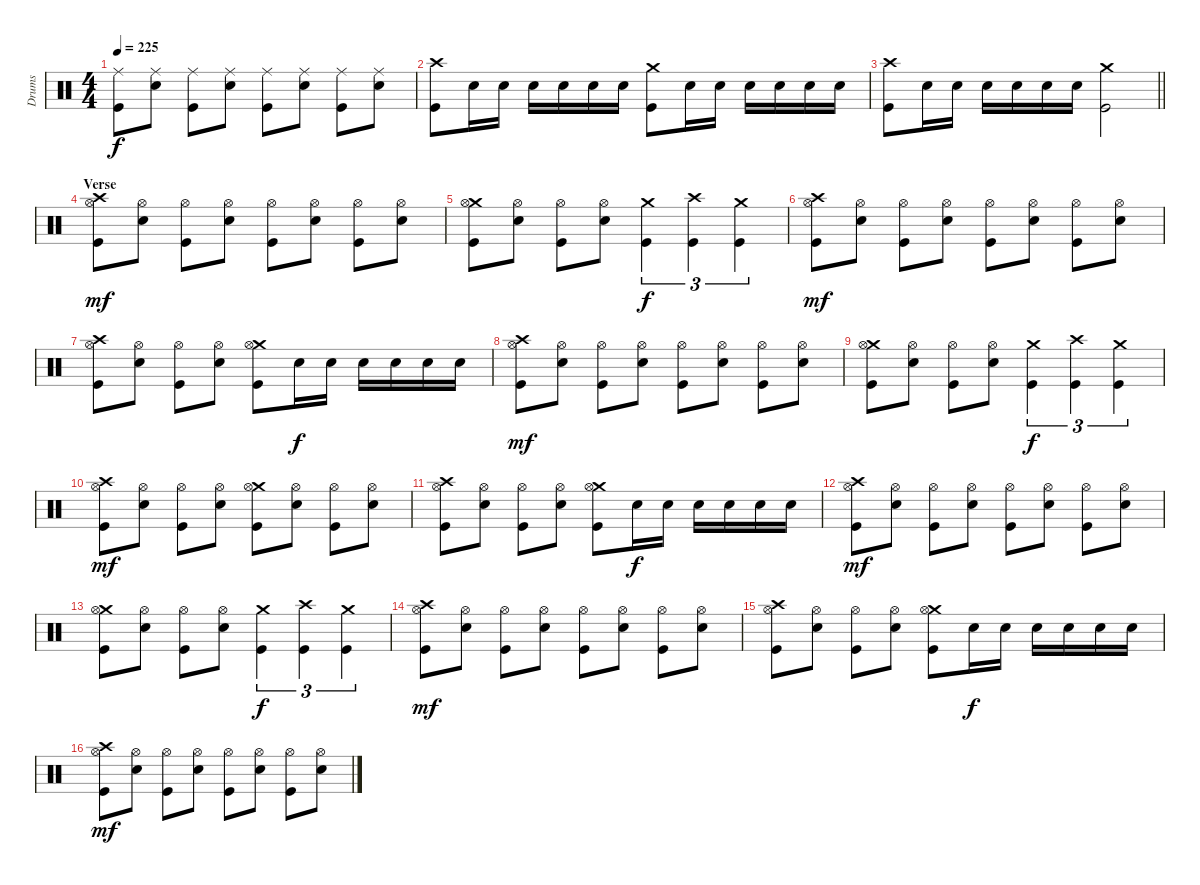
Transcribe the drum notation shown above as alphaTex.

\track ("Drums" "Drums") {instrument percussion}
\staff {score}
\articulation defaults
\ts (4 4)
\tempo 225
\clef neutral
\ks c
("Ride (middle)" "Kick (hit)").8{dy f} ("Ride (middle)" "Electric Snare (hit)").8 ("Ride (middle)" "Kick (hit)").8 ("Ride (middle)" "Electric Snare (hit)").8 ("Ride (middle)" "Kick (hit)").8 ("Ride (middle)" "Electric Snare (hit)").8 ("Ride (middle)" "Kick (hit)").8 ("Ride (middle)" "Electric Snare (hit)").8 |
("Crash high (hit)" "Kick (hit)").8 "Electric Snare (hit)".16 "Electric Snare (hit)".16 "Electric Snare (hit)".16 "Electric Snare (hit)".16 "Electric Snare (hit)".16 "Electric Snare (hit)".16 ("Crash medium (hit)" "Kick (hit)").8 "Electric Snare (hit)".16 "Electric Snare (hit)".16 "Electric Snare (hit)".16 "Electric Snare (hit)".16 "Electric Snare (hit)".16 "Electric Snare (hit)".16 |
\barLineRight lightlight
("Crash high (hit)" "Kick (hit)").8 "Electric Snare (hit)".16 "Electric Snare (hit)".16 "Electric Snare (hit)".16 "Electric Snare (hit)".16 "Electric Snare (hit)".16 "Electric Snare (hit)".16 ("Crash medium (hit)" "Kick (hit)").2 |
\section ("" "Verse")
("Crash high (hit)" "Hi-Hat (open)" "Kick (hit)").8{dy mf} ("Hi-Hat (open)" "Electric Snare (hit)").8 ("Hi-Hat (open)" "Kick (hit)").8 ("Hi-Hat (open)" "Electric Snare (hit)").8 ("Hi-Hat (open)" "Kick (hit)").8 ("Hi-Hat (open)" "Electric Snare (hit)").8 ("Hi-Hat (open)" "Kick (hit)").8 ("Hi-Hat (open)" "Electric Snare (hit)").8 |
("Crash medium (hit)" "Hi-Hat (open)" "Kick (hit)").8 ("Hi-Hat (open)" "Electric Snare (hit)").8 ("Hi-Hat (open)" "Kick (hit)").8 ("Hi-Hat (open)" "Electric Snare (hit)").8 ("Crash medium (hit)" "Kick (hit)").4{tu (3 2) dy f} ("Crash high (hit)" "Kick (hit)").4{tu (3 2)} ("Crash medium (hit)" "Kick (hit)").4{tu (3 2)} |
("Crash high (hit)" "Hi-Hat (open)" "Kick (hit)").8{dy mf} ("Hi-Hat (open)" "Electric Snare (hit)").8 ("Hi-Hat (open)" "Kick (hit)").8 ("Hi-Hat (open)" "Electric Snare (hit)").8 ("Hi-Hat (open)" "Kick (hit)").8 ("Hi-Hat (open)" "Electric Snare (hit)").8 ("Hi-Hat (open)" "Kick (hit)").8 ("Hi-Hat (open)" "Electric Snare (hit)").8 |
("Crash high (hit)" "Hi-Hat (open)" "Kick (hit)").8 ("Hi-Hat (open)" "Electric Snare (hit)").8 ("Hi-Hat (open)" "Kick (hit)").8 ("Hi-Hat (open)" "Electric Snare (hit)").8 ("Crash medium (hit)" "Hi-Hat (open)" "Kick (hit)").8 "Electric Snare (hit)".16{dy f} "Electric Snare (hit)".16 "Electric Snare (hit)".16 "Electric Snare (hit)".16 "Electric Snare (hit)".16 "Electric Snare (hit)".16 |
("Crash high (hit)" "Hi-Hat (open)" "Kick (hit)").8{dy mf} ("Hi-Hat (open)" "Electric Snare (hit)").8 ("Hi-Hat (open)" "Kick (hit)").8 ("Hi-Hat (open)" "Electric Snare (hit)").8 ("Hi-Hat (open)" "Kick (hit)").8 ("Hi-Hat (open)" "Electric Snare (hit)").8 ("Hi-Hat (open)" "Kick (hit)").8 ("Hi-Hat (open)" "Electric Snare (hit)").8 |
("Crash medium (hit)" "Hi-Hat (open)" "Kick (hit)").8 ("Hi-Hat (open)" "Electric Snare (hit)").8 ("Hi-Hat (open)" "Kick (hit)").8 ("Hi-Hat (open)" "Electric Snare (hit)").8 ("Crash medium (hit)" "Kick (hit)").4{tu (3 2) dy f} ("Crash high (hit)" "Kick (hit)").4{tu (3 2)} ("Crash medium (hit)" "Kick (hit)").4{tu (3 2)} |
("Crash high (hit)" "Hi-Hat (open)" "Kick (hit)").8{dy mf} ("Hi-Hat (open)" "Electric Snare (hit)").8 ("Hi-Hat (open)" "Kick (hit)").8 ("Hi-Hat (open)" "Electric Snare (hit)").8 ("Crash medium (hit)" "Hi-Hat (open)" "Kick (hit)").8 ("Hi-Hat (open)" "Electric Snare (hit)").8 ("Hi-Hat (open)" "Kick (hit)").8 ("Hi-Hat (open)" "Electric Snare (hit)").8 |
("Crash high (hit)" "Hi-Hat (open)" "Kick (hit)").8 ("Hi-Hat (open)" "Electric Snare (hit)").8 ("Hi-Hat (open)" "Kick (hit)").8 ("Hi-Hat (open)" "Electric Snare (hit)").8 ("Crash medium (hit)" "Hi-Hat (open)" "Kick (hit)").8 "Electric Snare (hit)".16{dy f} "Electric Snare (hit)".16 "Electric Snare (hit)".16 "Electric Snare (hit)".16 "Electric Snare (hit)".16 "Electric Snare (hit)".16 |
("Crash high (hit)" "Hi-Hat (open)" "Kick (hit)").8{dy mf} ("Hi-Hat (open)" "Electric Snare (hit)").8 ("Hi-Hat (open)" "Kick (hit)").8 ("Hi-Hat (open)" "Electric Snare (hit)").8 ("Hi-Hat (open)" "Kick (hit)").8 ("Hi-Hat (open)" "Electric Snare (hit)").8 ("Hi-Hat (open)" "Kick (hit)").8 ("Hi-Hat (open)" "Electric Snare (hit)").8 |
("Crash medium (hit)" "Hi-Hat (open)" "Kick (hit)").8 ("Hi-Hat (open)" "Electric Snare (hit)").8 ("Hi-Hat (open)" "Kick (hit)").8 ("Hi-Hat (open)" "Electric Snare (hit)").8 ("Crash medium (hit)" "Kick (hit)").4{tu (3 2) dy f} ("Crash high (hit)" "Kick (hit)").4{tu (3 2)} ("Crash medium (hit)" "Kick (hit)").4{tu (3 2)} |
("Crash high (hit)" "Hi-Hat (open)" "Kick (hit)").8{dy mf} ("Hi-Hat (open)" "Electric Snare (hit)").8 ("Hi-Hat (open)" "Kick (hit)").8 ("Hi-Hat (open)" "Electric Snare (hit)").8 ("Hi-Hat (open)" "Kick (hit)").8 ("Hi-Hat (open)" "Electric Snare (hit)").8 ("Hi-Hat (open)" "Kick (hit)").8 ("Hi-Hat (open)" "Electric Snare (hit)").8 |
("Crash high (hit)" "Hi-Hat (open)" "Kick (hit)").8 ("Hi-Hat (open)" "Electric Snare (hit)").8 ("Hi-Hat (open)" "Kick (hit)").8 ("Hi-Hat (open)" "Electric Snare (hit)").8 ("Crash medium (hit)" "Hi-Hat (open)" "Kick (hit)").8 "Electric Snare (hit)".16{dy f} "Electric Snare (hit)".16 "Electric Snare (hit)".16 "Electric Snare (hit)".16 "Electric Snare (hit)".16 "Electric Snare (hit)".16 |
("Crash high (hit)" "Hi-Hat (open)" "Kick (hit)").8{dy mf} ("Hi-Hat (open)" "Electric Snare (hit)").8 ("Hi-Hat (open)" "Kick (hit)").8 ("Hi-Hat (open)" "Electric Snare (hit)").8 ("Hi-Hat (open)" "Kick (hit)").8 ("Hi-Hat (open)" "Electric Snare (hit)").8 ("Hi-Hat (open)" "Kick (hit)").8 ("Hi-Hat (open)" "Electric Snare (hit)").8
